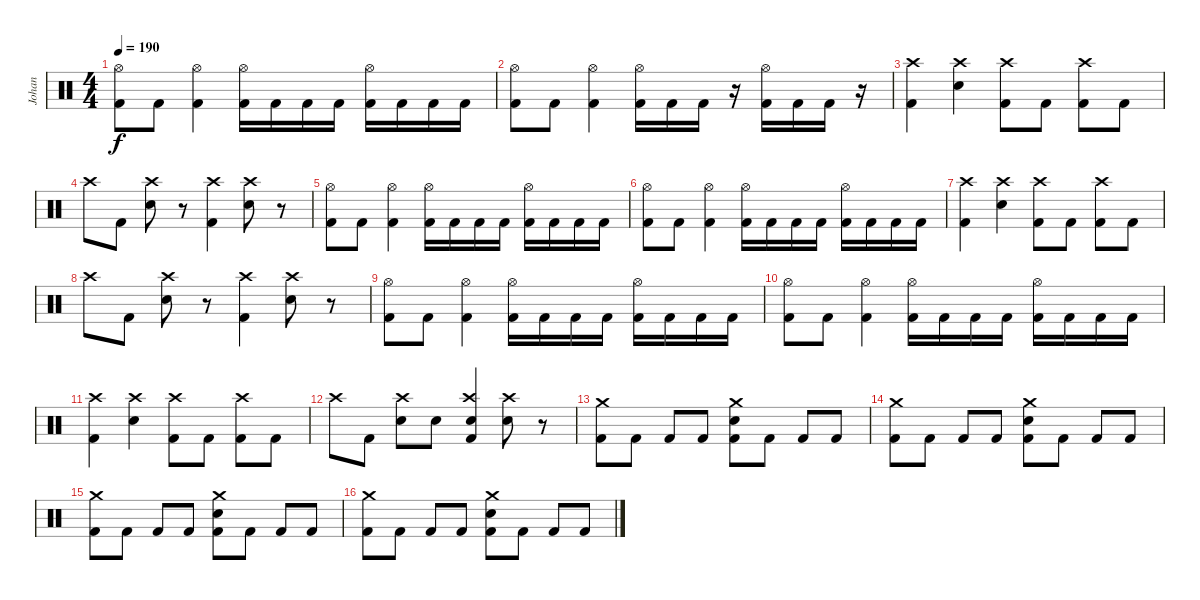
\track ("Johan" "Johan") {instrument percussion}
\staff {score}
\articulation defaults
\ts (4 4)
\tempo 190
\clef neutral
\ks c
("Hi-Hat (open)" "Kick (hit) 2").8{dy f} "Kick (hit) 2".8 ("Hi-Hat (open)" "Kick (hit) 2").4 ("Hi-Hat (open)" "Kick (hit) 2").16 "Kick (hit) 2".16 "Kick (hit) 2".16 "Kick (hit) 2".16 ("Hi-Hat (open)" "Kick (hit) 2").16 "Kick (hit) 2".16 "Kick (hit) 2".16 "Kick (hit) 2".16 |
("Hi-Hat (open)" "Kick (hit) 2").8 "Kick (hit) 2".8 ("Hi-Hat (open)" "Kick (hit) 2").4 ("Hi-Hat (open)" "Kick (hit) 2").16 "Kick (hit) 2".16 "Kick (hit) 2".16 r.16 ("Hi-Hat (open)" "Kick (hit) 2").16 "Kick (hit) 2".16 "Kick (hit) 2".16 r.16 |
("Crash high (hit)" "Kick (hit) 2").4 ("Electric Snare (hit)" "Crash high (hit)").4 ("Crash high (hit)" "Kick (hit) 2").8 "Kick (hit) 2".8 ("Crash high (hit)" "Kick (hit) 2").8 "Kick (hit) 2".8 |
"Crash high (hit)".8 "Kick (hit) 2".8 ("Electric Snare (hit)" "Crash high (hit)").8 r.8 ("Crash high (hit)" "Kick (hit) 2").4 ("Electric Snare (hit)" "Crash high (hit)").8 r.8 |
("Hi-Hat (open)" "Kick (hit) 2").8 "Kick (hit) 2".8 ("Hi-Hat (open)" "Kick (hit) 2").4 ("Hi-Hat (open)" "Kick (hit) 2").16 "Kick (hit) 2".16 "Kick (hit) 2".16 "Kick (hit) 2".16 ("Hi-Hat (open)" "Kick (hit) 2").16 "Kick (hit) 2".16 "Kick (hit) 2".16 "Kick (hit) 2".16 |
("Hi-Hat (open)" "Kick (hit) 2").8 "Kick (hit) 2".8 ("Hi-Hat (open)" "Kick (hit) 2").4 ("Hi-Hat (open)" "Kick (hit) 2").16 "Kick (hit) 2".16 "Kick (hit) 2".16 "Kick (hit) 2".16 ("Hi-Hat (open)" "Kick (hit) 2").16 "Kick (hit) 2".16 "Kick (hit) 2".16 "Kick (hit) 2".16 |
("Crash high (hit)" "Kick (hit) 2").4 ("Electric Snare (hit)" "Crash high (hit)").4 ("Crash high (hit)" "Kick (hit) 2").8 "Kick (hit) 2".8 ("Crash high (hit)" "Kick (hit) 2").8 "Kick (hit) 2".8 |
"Crash high (hit)".8 "Kick (hit) 2".8 ("Electric Snare (hit)" "Crash high (hit)").8 r.8 ("Crash high (hit)" "Kick (hit) 2").4 ("Electric Snare (hit)" "Crash high (hit)").8 r.8 |
("Hi-Hat (open)" "Kick (hit) 2").8 "Kick (hit) 2".8 ("Hi-Hat (open)" "Kick (hit) 2").4 ("Hi-Hat (open)" "Kick (hit) 2").16 "Kick (hit) 2".16 "Kick (hit) 2".16 "Kick (hit) 2".16 ("Hi-Hat (open)" "Kick (hit) 2").16 "Kick (hit) 2".16 "Kick (hit) 2".16 "Kick (hit) 2".16 |
("Hi-Hat (open)" "Kick (hit) 2").8 "Kick (hit) 2".8 ("Hi-Hat (open)" "Kick (hit) 2").4 ("Hi-Hat (open)" "Kick (hit) 2").16 "Kick (hit) 2".16 "Kick (hit) 2".16 "Kick (hit) 2".16 ("Hi-Hat (open)" "Kick (hit) 2").16 "Kick (hit) 2".16 "Kick (hit) 2".16 "Kick (hit) 2".16 |
("Crash high (hit)" "Kick (hit) 2").4 ("Electric Snare (hit)" "Crash high (hit)").4 ("Crash high (hit)" "Kick (hit) 2").8 "Kick (hit) 2".8 ("Crash high (hit)" "Kick (hit) 2").8 "Kick (hit) 2".8 |
"Crash high (hit)".8 "Kick (hit) 2".8 ("Electric Snare (hit)" "Crash high (hit)").8 "Electric Snare (hit)".8 ("Electric Snare (hit)" "Crash high (hit)" "Kick (hit) 2").4 ("Electric Snare (hit)" "Crash high (hit)").8 r.8 |
("Crash medium (hit)" "Kick (hit) 2").8 "Kick (hit) 2".8 "Kick (hit) 2".8 "Kick (hit) 2".8 ("Electric Snare (hit)" "Crash medium (hit)" "Kick (hit) 2").8 "Kick (hit) 2".8 "Kick (hit) 2".8 "Kick (hit) 2".8 |
("Crash medium (hit)" "Kick (hit) 2").8 "Kick (hit) 2".8 "Kick (hit) 2".8 "Kick (hit) 2".8 ("Electric Snare (hit)" "Crash medium (hit)" "Kick (hit) 2").8 "Kick (hit) 2".8 "Kick (hit) 2".8 "Kick (hit) 2".8 |
("Crash medium (hit)" "Kick (hit) 2").8 "Kick (hit) 2".8 "Kick (hit) 2".8 "Kick (hit) 2".8 ("Electric Snare (hit)" "Crash medium (hit)" "Kick (hit) 2").8 "Kick (hit) 2".8 "Kick (hit) 2".8 "Kick (hit) 2".8 |
("Crash medium (hit)" "Kick (hit) 2").8 "Kick (hit) 2".8 "Kick (hit) 2".8 "Kick (hit) 2".8 ("Electric Snare (hit)" "Crash medium (hit)" "Kick (hit) 2").8 "Kick (hit) 2".8 "Kick (hit) 2".8 "Kick (hit) 2".8
